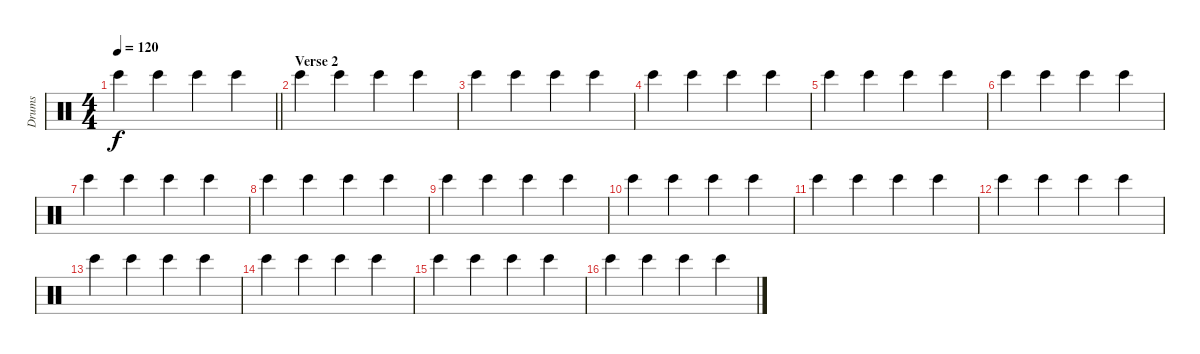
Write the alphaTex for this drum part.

\track ("Drums" "Drums") {instrument percussion}
\staff {score}
\articulation defaults
\ts (4 4)
\tempo 120
\clef neutral
\barLineRight lightlight
\ks c "Bongo High (hit)".4{dy f} "Bongo High (hit)".4 "Bongo High (hit)".4 "Bongo High (hit)".4
|
\section ("" "Verse 2")
"Bongo High (hit)".4 "Bongo High (hit)".4 "Bongo High (hit)".4 "Bongo High (hit)".4 |
"Bongo High (hit)".4 "Bongo High (hit)".4 "Bongo High (hit)".4 "Bongo High (hit)".4 |
"Bongo High (hit)".4 "Bongo High (hit)".4 "Bongo High (hit)".4 "Bongo High (hit)".4 |
"Bongo High (hit)".4 "Bongo High (hit)".4 "Bongo High (hit)".4 "Bongo High (hit)".4 |
"Bongo High (hit)".4 "Bongo High (hit)".4 "Bongo High (hit)".4 "Bongo High (hit)".4 |
"Bongo High (hit)".4 "Bongo High (hit)".4 "Bongo High (hit)".4 "Bongo High (hit)".4 |
"Bongo High (hit)".4 "Bongo High (hit)".4 "Bongo High (hit)".4 "Bongo High (hit)".4 |
"Bongo High (hit)".4 "Bongo High (hit)".4 "Bongo High (hit)".4 "Bongo High (hit)".4 |
"Bongo High (hit)".4 "Bongo High (hit)".4 "Bongo High (hit)".4 "Bongo High (hit)".4 |
"Bongo High (hit)".4 "Bongo High (hit)".4 "Bongo High (hit)".4 "Bongo High (hit)".4 |
"Bongo High (hit)".4 "Bongo High (hit)".4 "Bongo High (hit)".4 "Bongo High (hit)".4 |
"Bongo High (hit)".4 "Bongo High (hit)".4 "Bongo High (hit)".4 "Bongo High (hit)".4 |
"Bongo High (hit)".4 "Bongo High (hit)".4 "Bongo High (hit)".4 "Bongo High (hit)".4 |
"Bongo High (hit)".4 "Bongo High (hit)".4 "Bongo High (hit)".4 "Bongo High (hit)".4 |
"Bongo High (hit)".4 "Bongo High (hit)".4 "Bongo High (hit)".4 "Bongo High (hit)".4
